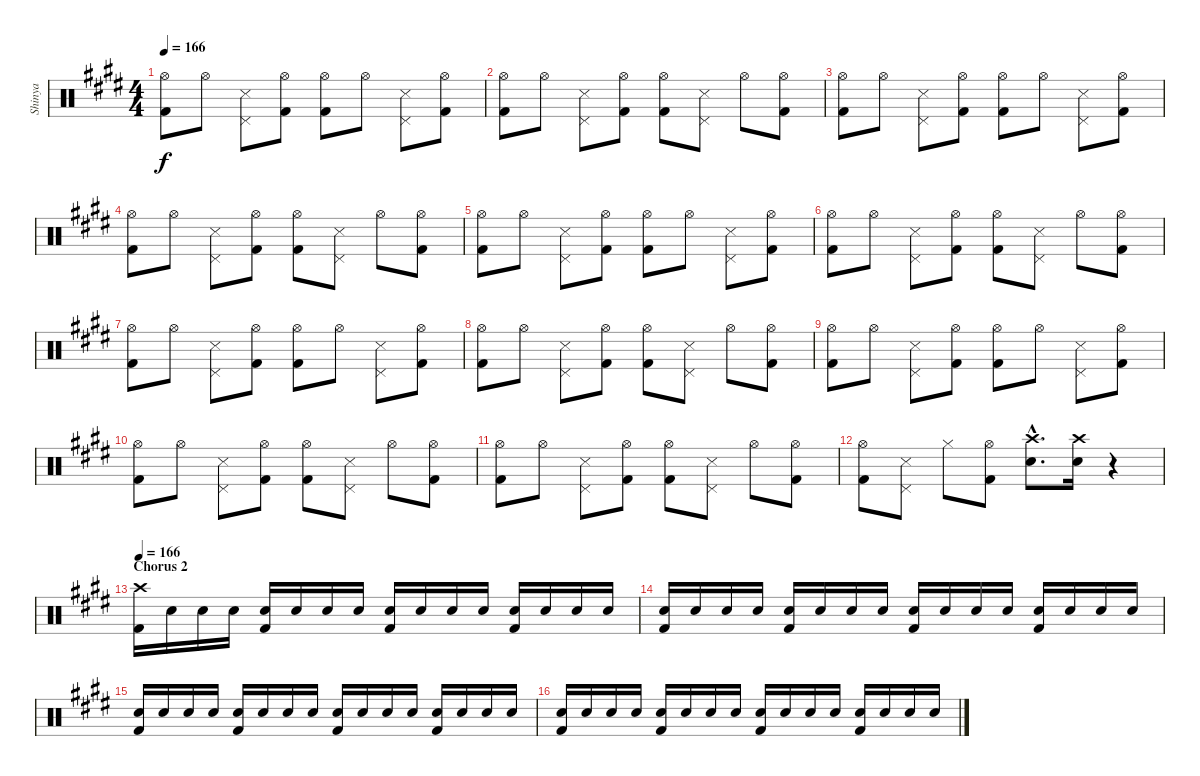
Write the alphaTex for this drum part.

\track ("Shinya" "Shinya") {instrument percussion}
\staff {score}
\articulation defaults
\ts (4 4)
\tempo 166
\clef neutral
\ks e
("Hi-Hat (open)" "Kick (hit) 2").8{dy f} "Hi-Hat (open)".8 ("Snare (side stick) 3" "Pedal Hi-Hat (hit)").8 ("Hi-Hat (open)" "Kick (hit) 2").8 ("Hi-Hat (open)" "Kick (hit) 2").8 "Hi-Hat (open)".8 ("Snare (side stick) 3" "Pedal Hi-Hat (hit)").8 ("Hi-Hat (open)" "Kick (hit) 2").8 |
("Hi-Hat (open)" "Kick (hit) 2").8 "Hi-Hat (open)".8 ("Snare (side stick) 3" "Pedal Hi-Hat (hit)").8 ("Hi-Hat (open)" "Kick (hit) 2").8 ("Hi-Hat (open)" "Kick (hit) 2").8 ("Snare (side stick) 3" "Pedal Hi-Hat (hit)").8 "Hi-Hat (open)".8 ("Hi-Hat (open)" "Kick (hit) 2").8 |
("Hi-Hat (open)" "Kick (hit) 2").8 "Hi-Hat (open)".8 ("Snare (side stick) 3" "Pedal Hi-Hat (hit)").8 ("Hi-Hat (open)" "Kick (hit) 2").8 ("Hi-Hat (open)" "Kick (hit) 2").8 "Hi-Hat (open)".8 ("Snare (side stick) 3" "Pedal Hi-Hat (hit)").8 ("Hi-Hat (open)" "Kick (hit) 2").8 |
("Hi-Hat (open)" "Kick (hit) 2").8 "Hi-Hat (open)".8 ("Snare (side stick) 3" "Pedal Hi-Hat (hit)").8 ("Hi-Hat (open)" "Kick (hit) 2").8 ("Hi-Hat (open)" "Kick (hit) 2").8 ("Snare (side stick) 3" "Pedal Hi-Hat (hit)").8 "Hi-Hat (open)".8 ("Hi-Hat (open)" "Kick (hit) 2").8 |
("Hi-Hat (open)" "Kick (hit) 2").8 "Hi-Hat (open)".8 ("Snare (side stick) 3" "Pedal Hi-Hat (hit)").8 ("Hi-Hat (open)" "Kick (hit) 2").8 ("Hi-Hat (open)" "Kick (hit) 2").8 "Hi-Hat (open)".8 ("Snare (side stick) 3" "Pedal Hi-Hat (hit)").8 ("Hi-Hat (open)" "Kick (hit) 2").8 |
("Hi-Hat (open)" "Kick (hit) 2").8 "Hi-Hat (open)".8 ("Snare (side stick) 3" "Pedal Hi-Hat (hit)").8 ("Hi-Hat (open)" "Kick (hit) 2").8 ("Hi-Hat (open)" "Kick (hit) 2").8 ("Snare (side stick) 3" "Pedal Hi-Hat (hit)").8 "Hi-Hat (open)".8 ("Hi-Hat (open)" "Kick (hit) 2").8 |
("Hi-Hat (open)" "Kick (hit) 2").8 "Hi-Hat (open)".8 ("Snare (side stick) 3" "Pedal Hi-Hat (hit)").8 ("Hi-Hat (open)" "Kick (hit) 2").8 ("Hi-Hat (open)" "Kick (hit) 2").8 "Hi-Hat (open)".8 ("Snare (side stick) 3" "Pedal Hi-Hat (hit)").8 ("Hi-Hat (open)" "Kick (hit) 2").8 |
("Hi-Hat (open)" "Kick (hit) 2").8 "Hi-Hat (open)".8 ("Snare (side stick) 3" "Pedal Hi-Hat (hit)").8 ("Hi-Hat (open)" "Kick (hit) 2").8 ("Hi-Hat (open)" "Kick (hit) 2").8 ("Snare (side stick) 3" "Pedal Hi-Hat (hit)").8 "Hi-Hat (open)".8 ("Hi-Hat (open)" "Kick (hit) 2").8 |
("Hi-Hat (open)" "Kick (hit) 2").8 "Hi-Hat (open)".8 ("Snare (side stick) 3" "Pedal Hi-Hat (hit)").8 ("Hi-Hat (open)" "Kick (hit) 2").8 ("Hi-Hat (open)" "Kick (hit) 2").8 "Hi-Hat (open)".8 ("Snare (side stick) 3" "Pedal Hi-Hat (hit)").8 ("Hi-Hat (open)" "Kick (hit) 2").8 |
("Hi-Hat (open)" "Kick (hit) 2").8 "Hi-Hat (open)".8 ("Snare (side stick) 3" "Pedal Hi-Hat (hit)").8 ("Hi-Hat (open)" "Kick (hit) 2").8 ("Hi-Hat (open)" "Kick (hit) 2").8 ("Snare (side stick) 3" "Pedal Hi-Hat (hit)").8 "Hi-Hat (open)".8 ("Hi-Hat (open)" "Kick (hit) 2").8 |
("Hi-Hat (open)" "Kick (hit) 2").8 "Hi-Hat (open)".8 ("Snare (side stick) 3" "Pedal Hi-Hat (hit)").8 ("Hi-Hat (open)" "Kick (hit) 2").8 ("Hi-Hat (open)" "Kick (hit) 2").8 ("Snare (side stick) 3" "Pedal Hi-Hat (hit)").8 "Hi-Hat (open)".8 ("Hi-Hat (open)" "Kick (hit) 2").8 |
("Hi-Hat (open)" "Kick (hit) 2").8 ("Snare (side stick) 3" "Pedal Hi-Hat (hit)").8 "Hi-Hat (closed)".8 ("Hi-Hat (open)" "Kick (hit) 2").8 ("Crash high (hit)"{hac} "Snare (hit) 2"{hac}).8{d} ("Crash high (hit)" "Snare (hit) 2").16 r.4 |
\section ("" "Chorus 2")
\tempo 166
("Crash high (hit)" "Kick (hit) 2").16 "Snare (hit) 2".16 "Snare (hit) 2".16 "Snare (hit) 2".16 ("Snare (hit) 2" "Kick (hit) 2").16 "Snare (hit) 2".16 "Snare (hit) 2".16 "Snare (hit) 2".16 ("Snare (hit) 2" "Kick (hit) 2").16 "Snare (hit) 2".16 "Snare (hit) 2".16 "Snare (hit) 2".16 ("Snare (hit) 2" "Kick (hit) 2").16 "Snare (hit) 2".16 "Snare (hit) 2".16 "Snare (hit) 2".16 |
("Snare (hit) 2" "Kick (hit) 2").16 "Snare (hit) 2".16 "Snare (hit) 2".16 "Snare (hit) 2".16 ("Snare (hit) 2" "Kick (hit) 2").16 "Snare (hit) 2".16 "Snare (hit) 2".16 "Snare (hit) 2".16 ("Snare (hit) 2" "Kick (hit) 2").16 "Snare (hit) 2".16 "Snare (hit) 2".16 "Snare (hit) 2".16 ("Snare (hit) 2" "Kick (hit) 2").16 "Snare (hit) 2".16 "Snare (hit) 2".16 "Snare (hit) 2".16 |
("Snare (hit) 2" "Kick (hit) 2").16 "Snare (hit) 2".16 "Snare (hit) 2".16 "Snare (hit) 2".16 ("Snare (hit) 2" "Kick (hit) 2").16 "Snare (hit) 2".16 "Snare (hit) 2".16 "Snare (hit) 2".16 ("Snare (hit) 2" "Kick (hit) 2").16 "Snare (hit) 2".16 "Snare (hit) 2".16 "Snare (hit) 2".16 ("Snare (hit) 2" "Kick (hit) 2").16 "Snare (hit) 2".16 "Snare (hit) 2".16 "Snare (hit) 2".16 |
("Snare (hit) 2" "Kick (hit) 2").16 "Snare (hit) 2".16 "Snare (hit) 2".16 "Snare (hit) 2".16 ("Snare (hit) 2" "Kick (hit) 2").16 "Snare (hit) 2".16 "Snare (hit) 2".16 "Snare (hit) 2".16 ("Snare (hit) 2" "Kick (hit) 2").16 "Snare (hit) 2".16 "Snare (hit) 2".16 "Snare (hit) 2".16 ("Snare (hit) 2" "Kick (hit) 2").16 "Snare (hit) 2".16 "Snare (hit) 2".16 "Snare (hit) 2".16
